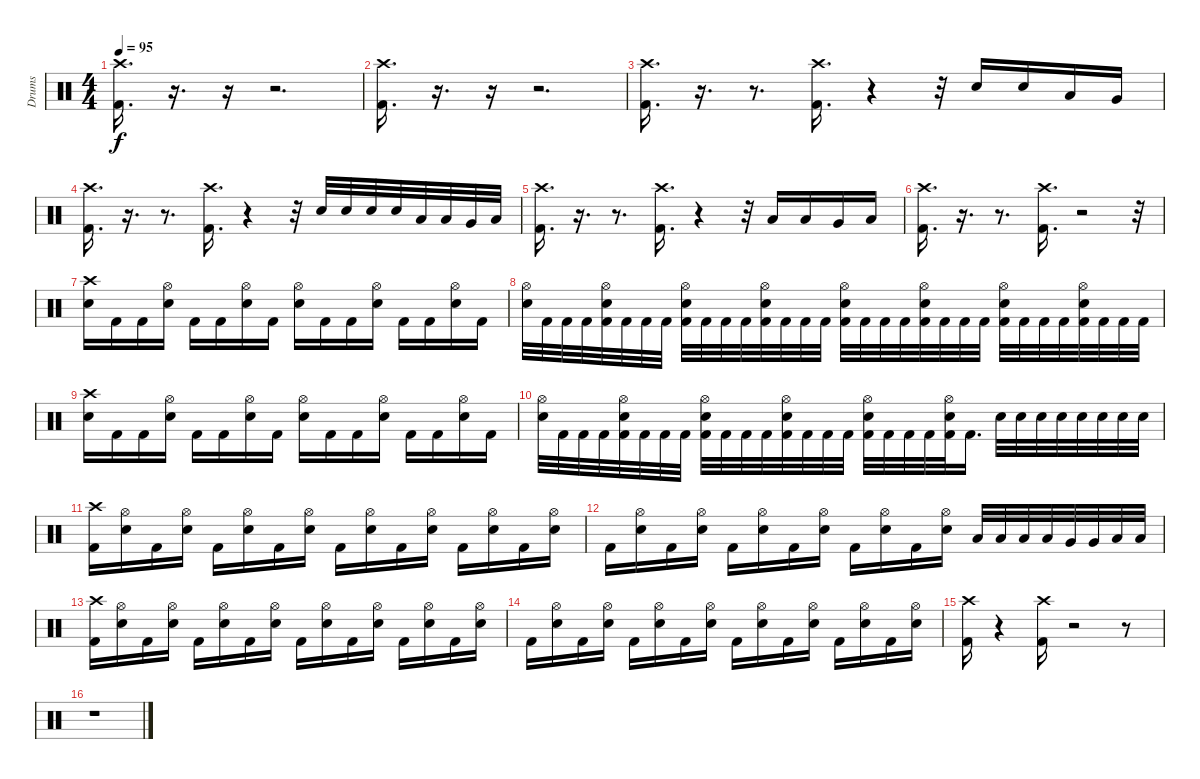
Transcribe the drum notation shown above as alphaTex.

\track ("Drums" "Drums") {instrument percussion}
\staff {score}
\articulation defaults
\ts (4 4)
\tempo 95
\clef neutral
\ks c
("Crash high (hit)" "Kick (hit) 2").16{d dy f volume 13} r.16{d volume 0} r.16 r.2{d} |
("Crash high (hit)" "Kick (hit) 2").16{d volume 13} r.16{d volume 0} r.16 r.2{d} |
("Crash high (hit)" "Kick (hit) 2").16{d volume 13} r.16{d volume 0} r.8{d} ("Crash high (hit)" "Kick (hit) 2").16{d volume 13} r.4{volume 0} r.32 "Electric Snare (hit)".16{volume 13} "Electric Snare (hit)".16 "Low Tom (hit)".16 "Very Low Tom (hit)".16 |
("Crash high (hit)" "Kick (hit) 2").16{d volume 13} r.16{d volume 0} r.8{d} ("Crash high (hit)" "Kick (hit) 2").16{d volume 13} r.4{volume 0} r.32 "Electric Snare (hit)".32{volume 13} "Electric Snare (hit)".32 "Electric Snare (hit)".32 "Electric Snare (hit)".32 "Low Tom (hit)".32 "Low Tom (hit)".32 "Very Low Tom (hit)".32 "Low Floor Tom (hit)".32 |
("Crash high (hit)" "Kick (hit) 2").16{d volume 13} r.16{d volume 0} r.8{d} ("Crash high (hit)" "Kick (hit) 2").16{d volume 13} r.4{volume 0} r.32 "Low Tom (hit)".16{volume 13} "Low Tom (hit)".16 "Very Low Tom (hit)".16 "Low Floor Tom (hit)".16 |
("Crash high (hit)" "Kick (hit) 2").16{d volume 13} r.16{d volume 0} r.8{d} ("Crash high (hit)" "Kick (hit) 2").16{d volume 13} r.2{volume 0} r.32 |
("Crash high (hit)" "Electric Snare (hit)").16{volume 13} "Kick (hit) 2".16 "Kick (hit) 2".16 ("Hi-Hat (open)" "Electric Snare (hit)").16 "Kick (hit) 2".16 "Kick (hit) 2".16 ("Hi-Hat (open)" "Electric Snare (hit)").16 "Kick (hit) 2".16 ("Hi-Hat (open)" "Electric Snare (hit)").16 "Kick (hit) 2".16 "Kick (hit) 2".16 ("Hi-Hat (open)" "Electric Snare (hit)").16 "Kick (hit) 2".16 "Kick (hit) 2".16 ("Hi-Hat (open)" "Electric Snare (hit)").16 "Kick (hit) 2".16 |
("Hi-Hat (open)" "Electric Snare (hit)").32 "Kick (hit) 2".32 "Kick (hit) 2".32 "Kick (hit) 2".32 ("Hi-Hat (open)" "Electric Snare (hit)" "Kick (hit) 2").32 "Kick (hit) 2".32 "Kick (hit) 2".32 "Kick (hit) 2".32 ("Hi-Hat (open)" "Electric Snare (hit)" "Kick (hit) 2").32 "Kick (hit) 2".32 "Kick (hit) 2".32 "Kick (hit) 2".32 ("Hi-Hat (open)" "Electric Snare (hit)" "Kick (hit) 2").32 "Kick (hit) 2".32 "Kick (hit) 2".32 "Kick (hit) 2".32 ("Hi-Hat (open)" "Electric Snare (hit)" "Kick (hit) 2").32 "Kick (hit) 2".32 "Kick (hit) 2".32 "Kick (hit) 2".32 ("Hi-Hat (open)" "Electric Snare (hit)" "Kick (hit) 2").32 "Kick (hit) 2".32 "Kick (hit) 2".32 "Kick (hit) 2".32 ("Hi-Hat (open)" "Electric Snare (hit)" "Kick (hit) 2").32 "Kick (hit) 2".32 "Kick (hit) 2".32 "Kick (hit) 2".32 ("Hi-Hat (open)" "Electric Snare (hit)" "Kick (hit) 2").32 "Kick (hit) 2".32 "Kick (hit) 2".32 "Kick (hit) 2".32 |
("Crash high (hit)" "Electric Snare (hit)").16 "Kick (hit) 2".16 "Kick (hit) 2".16 ("Hi-Hat (open)" "Electric Snare (hit)").16 "Kick (hit) 2".16 "Kick (hit) 2".16 ("Hi-Hat (open)" "Electric Snare (hit)").16 "Kick (hit) 2".16 ("Hi-Hat (open)" "Electric Snare (hit)").16 "Kick (hit) 2".16 "Kick (hit) 2".16 ("Hi-Hat (open)" "Electric Snare (hit)").16 "Kick (hit) 2".16 "Kick (hit) 2".16 ("Hi-Hat (open)" "Electric Snare (hit)").16 "Kick (hit) 2".16 |
("Hi-Hat (open)" "Electric Snare (hit)").32 "Kick (hit) 2".32 "Kick (hit) 2".32 "Kick (hit) 2".32 ("Hi-Hat (open)" "Electric Snare (hit)" "Kick (hit) 2").32 "Kick (hit) 2".32 "Kick (hit) 2".32 "Kick (hit) 2".32 ("Hi-Hat (open)" "Electric Snare (hit)" "Kick (hit) 2").32 "Kick (hit) 2".32 "Kick (hit) 2".32 "Kick (hit) 2".32 ("Hi-Hat (open)" "Electric Snare (hit)" "Kick (hit) 2").32 "Kick (hit) 2".32 "Kick (hit) 2".32 "Kick (hit) 2".32 ("Hi-Hat (open)" "Electric Snare (hit)" "Kick (hit) 2").32 "Kick (hit) 2".32 "Kick (hit) 2".32 "Kick (hit) 2".32 ("Hi-Hat (open)" "Electric Snare (hit)" "Kick (hit) 2").32 "Kick (hit) 2".16{d} "Electric Snare (hit)".32 "Electric Snare (hit)".32 "Electric Snare (hit)".32 "Electric Snare (hit)".32 "Electric Snare (hit)".32 "Electric Snare (hit)".32 "Electric Snare (hit)".32 "Electric Snare (hit)".32 |
("Crash high (hit)" "Kick (hit) 2").16 ("Hi-Hat (open)" "Electric Snare (hit)").16 "Kick (hit) 2".16 ("Hi-Hat (open)" "Electric Snare (hit)").16 "Kick (hit) 2".16 ("Hi-Hat (open)" "Electric Snare (hit)").16 "Kick (hit) 2".16 ("Hi-Hat (open)" "Electric Snare (hit)").16 "Kick (hit) 2".16 ("Hi-Hat (open)" "Electric Snare (hit)").16 "Kick (hit) 2".16 ("Hi-Hat (open)" "Electric Snare (hit)").16 "Kick (hit) 2".16 ("Hi-Hat (open)" "Electric Snare (hit)").16 "Kick (hit) 2".16 ("Hi-Hat (open)" "Electric Snare (hit)").16 |
"Kick (hit) 2".16 ("Hi-Hat (open)" "Electric Snare (hit)").16 "Kick (hit) 2".16 ("Hi-Hat (open)" "Electric Snare (hit)").16 "Kick (hit) 2".16 ("Hi-Hat (open)" "Electric Snare (hit)").16 "Kick (hit) 2".16 ("Hi-Hat (open)" "Electric Snare (hit)").16 "Kick (hit) 2".16 ("Hi-Hat (open)" "Electric Snare (hit)").16 "Kick (hit) 2".16 ("Hi-Hat (open)" "Electric Snare (hit)").16 "Low Tom (hit)".32 "Low Tom (hit)".32 "Low Tom (hit)".32 "Low Tom (hit)".32 "Very Low Tom (hit)".32 "Very Low Tom (hit)".32 "Low Floor Tom (hit)".32 "Low Floor Tom (hit)".32 |
("Crash high (hit)" "Kick (hit) 2").16 ("Hi-Hat (open)" "Electric Snare (hit)").16 "Kick (hit) 2".16 ("Hi-Hat (open)" "Electric Snare (hit)").16 "Kick (hit) 2".16 ("Hi-Hat (open)" "Electric Snare (hit)").16 "Kick (hit) 2".16 ("Hi-Hat (open)" "Electric Snare (hit)").16 "Kick (hit) 2".16 ("Hi-Hat (open)" "Electric Snare (hit)").16 "Kick (hit) 2".16 ("Hi-Hat (open)" "Electric Snare (hit)").16 "Kick (hit) 2".16 ("Hi-Hat (open)" "Electric Snare (hit)").16 "Kick (hit) 2".16 ("Hi-Hat (open)" "Electric Snare (hit)").16 |
"Kick (hit) 2".16 ("Hi-Hat (open)" "Electric Snare (hit)").16 "Kick (hit) 2".16 ("Hi-Hat (open)" "Electric Snare (hit)").16 "Kick (hit) 2".16 ("Hi-Hat (open)" "Electric Snare (hit)").16 "Kick (hit) 2".16 ("Hi-Hat (open)" "Electric Snare (hit)").16 "Kick (hit) 2".16 ("Hi-Hat (open)" "Electric Snare (hit)").16 "Kick (hit) 2".16 ("Hi-Hat (open)" "Electric Snare (hit)").16 "Kick (hit) 2".16 ("Hi-Hat (open)" "Electric Snare (hit)").16 "Kick (hit) 2".16 ("Hi-Hat (open)" "Electric Snare (hit)").16 |
("Crash high (hit)" "Kick (hit) 2").16 r.4{volume 0} ("Crash high (hit)" "Kick (hit) 2").16{volume 13} r.2{volume 0} r.8 |
r.1
